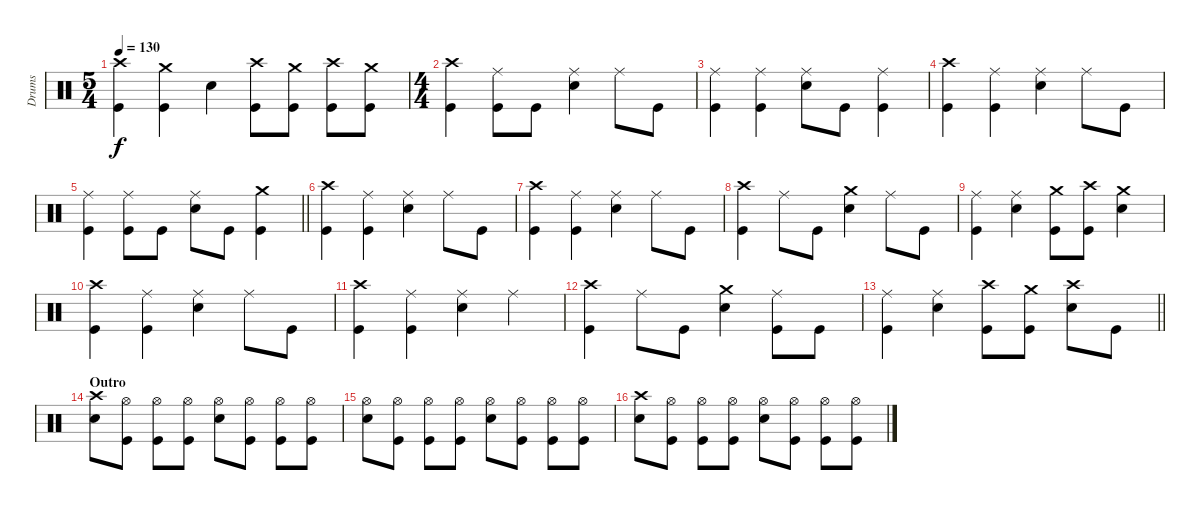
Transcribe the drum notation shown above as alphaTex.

\track ("Drums" "Drums") {instrument percussion}
\staff {score}
\articulation defaults
\ts (5 4)
\tempo 130
\clef neutral
\ks c
("Crash high (hit)" "Kick (hit)").4{dy f} ("Crash medium (hit)" "Kick (hit)").4 "Snare (hit) 2".4 ("Crash high (hit)" "Kick (hit)").8 ("Crash medium (hit)" "Kick (hit)").8 ("Crash high (hit)" "Kick (hit)").8 ("Crash medium (hit)" "Kick (hit)").8 |
\ts (4 4)
("Crash high (hit)" "Kick (hit)").4 ("Ride (middle)" "Kick (hit)").8 "Kick (hit)".8 ("Ride (middle)" "Snare (hit) 2").4 "Ride (middle)".8 "Kick (hit)".8 |
("Ride (middle)" "Kick (hit)").4 ("Ride (middle)" "Kick (hit)").4 ("Ride (middle)" "Snare (hit) 2").8 "Kick (hit)".8 ("Ride (middle)" "Kick (hit)").4 |
("Crash high (hit)" "Kick (hit)").4 ("Ride (middle)" "Kick (hit)").4 ("Ride (middle)" "Snare (hit) 2").4 "Ride (middle)".8 "Kick (hit)".8 |
\barLineRight lightlight
("Ride (middle)" "Kick (hit)").4 ("Ride (middle)" "Kick (hit)").8 "Kick (hit)".8 ("Ride (middle)" "Snare (hit) 2").8 "Kick (hit)".8 ("Crash medium (hit)" "Kick (hit)").4 |
("Crash high (hit)" "Kick (hit)").4 ("Ride (middle)" "Kick (hit)").4 ("Ride (middle)" "Snare (hit) 2").4 "Ride (middle)".8 "Kick (hit)".8 |
("Crash high (hit)" "Kick (hit)").4 ("Ride (middle)" "Kick (hit)").4 ("Ride (middle)" "Snare (hit) 2").4 "Ride (middle)".8 "Kick (hit)".8 |
("Crash high (hit)" "Kick (hit)").4 "Ride (middle)".8 "Kick (hit)".8 ("Crash medium (hit)" "Snare (hit) 2").4 "Ride (middle)".8 "Kick (hit)".8 |
("Ride (middle)" "Kick (hit)").4 ("Ride (middle)" "Snare (hit) 2").4 ("Crash medium (hit)" "Kick (hit)").8 ("Crash high (hit)" "Kick (hit)").8 ("Crash medium (hit)" "Snare (hit) 2").4 |
("Crash high (hit)" "Kick (hit)").4 ("Ride (middle)" "Kick (hit)").4 ("Ride (middle)" "Snare (hit) 2").4 "Ride (middle)".8 "Kick (hit)".8 |
("Crash high (hit)" "Kick (hit)").4 ("Ride (middle)" "Kick (hit)").4 ("Ride (middle)" "Snare (hit) 2").4 "Ride (middle)".4 |
("Crash high (hit)" "Kick (hit)").4 "Ride (middle)".8 "Kick (hit)".8 ("Crash medium (hit)" "Snare (hit) 2").4 ("Ride (middle)" "Kick (hit)").8 "Kick (hit)".8 |
\barLineRight lightlight
("Ride (middle)" "Kick (hit)").4 ("Ride (middle)" "Snare (hit) 2").4 ("Crash high (hit)" "Kick (hit)").8 ("Crash medium (hit)" "Kick (hit)").8 ("Crash high (hit)" "Snare (hit) 2").8 "Kick (hit)".8 |
\section ("" "Outro")
("Crash high (hit)" "Snare (hit) 2").8 ("Hi-Hat (open)" "Kick (hit)").8 ("Hi-Hat (open)" "Kick (hit)").8 ("Hi-Hat (open)" "Kick (hit)").8 ("Hi-Hat (open)" "Snare (hit) 2").8 ("Hi-Hat (open)" "Kick (hit)").8 ("Hi-Hat (open)" "Kick (hit)").8 ("Hi-Hat (open)" "Kick (hit)").8 |
("Hi-Hat (open)" "Snare (hit) 2").8 ("Hi-Hat (open)" "Kick (hit)").8 ("Hi-Hat (open)" "Kick (hit)").8 ("Hi-Hat (open)" "Kick (hit)").8 ("Hi-Hat (open)" "Snare (hit) 2").8 ("Hi-Hat (open)" "Kick (hit)").8 ("Hi-Hat (open)" "Kick (hit)").8 ("Hi-Hat (open)" "Kick (hit)").8 |
("Crash high (hit)" "Snare (hit) 2").8 ("Hi-Hat (open)" "Kick (hit)").8 ("Hi-Hat (open)" "Kick (hit)").8 ("Hi-Hat (open)" "Kick (hit)").8 ("Hi-Hat (open)" "Snare (hit) 2").8 ("Hi-Hat (open)" "Kick (hit)").8 ("Hi-Hat (open)" "Kick (hit)").8 ("Hi-Hat (open)" "Kick (hit)").8
